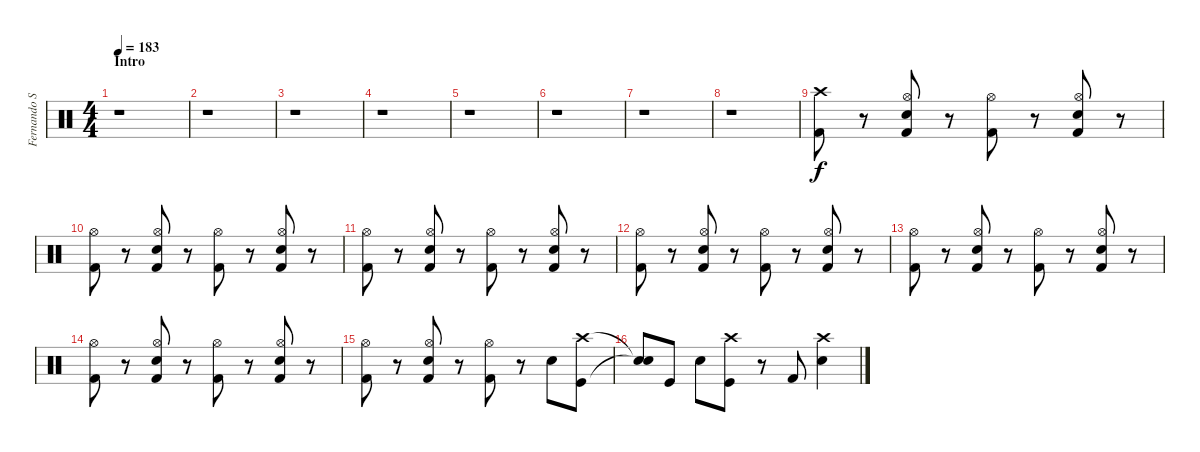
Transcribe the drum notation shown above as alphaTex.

\track ("Fernando Scarcella" "Fernando S") {instrument percussion}
\staff {score}
\articulation defaults
\ts (4 4)
\section ("" "Intro")
\tempo 183
\clef neutral
\ks c
r.1{dy f} |
r.1 |
r.1 |
r.1 |
r.1 |
r.1 |
r.1 |
r.1 |
("Crash high (hit)" "Kick (hit) 2").8 r.8 ("Hi-Hat (open)" "Snare (hit) 2" "Kick (hit) 2").8 r.8 ("Hi-Hat (open)" "Kick (hit) 2").8 r.8 ("Hi-Hat (open)" "Snare (hit) 2" "Kick (hit) 2").8 r.8 |
("Hi-Hat (open)" "Kick (hit) 2").8 r.8 ("Hi-Hat (open)" "Snare (hit) 2" "Kick (hit) 2").8 r.8 ("Hi-Hat (open)" "Kick (hit) 2").8 r.8 ("Hi-Hat (open)" "Snare (hit) 2" "Kick (hit) 2").8 r.8 |
("Hi-Hat (open)" "Kick (hit) 2").8 r.8 ("Hi-Hat (open)" "Snare (hit) 2" "Kick (hit) 2").8 r.8 ("Hi-Hat (open)" "Kick (hit) 2").8 r.8 ("Hi-Hat (open)" "Snare (hit) 2" "Kick (hit) 2").8 r.8 |
("Hi-Hat (open)" "Kick (hit) 2").8 r.8 ("Hi-Hat (open)" "Snare (hit) 2" "Kick (hit) 2").8 r.8 ("Hi-Hat (open)" "Kick (hit) 2").8 r.8 ("Hi-Hat (open)" "Snare (hit) 2" "Kick (hit) 2").8 r.8 |
("Hi-Hat (open)" "Kick (hit) 2").8 r.8 ("Hi-Hat (open)" "Snare (hit) 2" "Kick (hit) 2").8 r.8 ("Hi-Hat (open)" "Kick (hit) 2").8 r.8 ("Hi-Hat (open)" "Snare (hit) 2" "Kick (hit) 2").8 r.8 |
("Hi-Hat (open)" "Kick (hit) 2").8 r.8 ("Hi-Hat (open)" "Snare (hit) 2" "Kick (hit) 2").8 r.8 ("Hi-Hat (open)" "Kick (hit) 2").8 r.8 ("Hi-Hat (open)" "Snare (hit) 2" "Kick (hit) 2").8 r.8 |
("Hi-Hat (open)" "Kick (hit) 2").8 r.8 ("Hi-Hat (open)" "Snare (hit) 2" "Kick (hit) 2").8 r.8 ("Hi-Hat (open)" "Kick (hit) 2").8 r.8 "Snare (hit) 2".8 ("Crash high (hit)" "Kick (hit)").8 |
("Snare (hit)"{t} "Snare (hit)"{t}).8 "Kick (hit)".8 "Snare (hit) 2".8 ("Crash high (hit)" "Kick (hit)").8 r.8 "Kick (hit) 2".8 ("Crash high (hit)" "Snare (hit) 2").4
